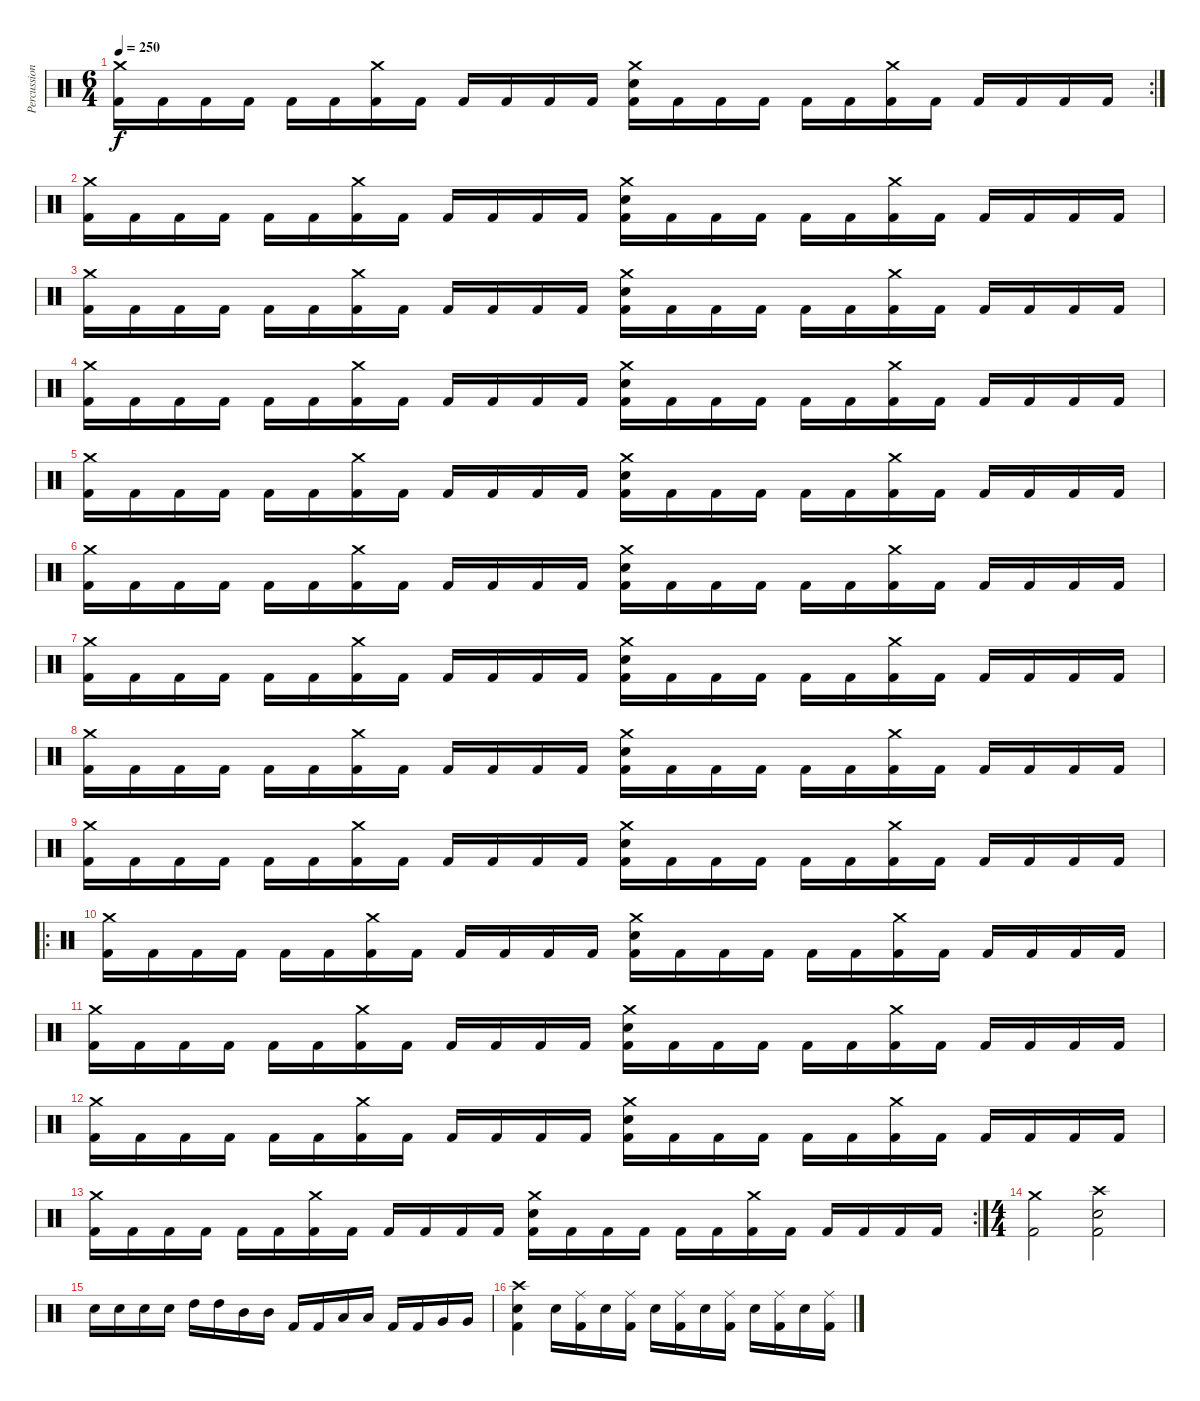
\track ("Percussion" "Percussion") {instrument percussion}
\staff {score}
\articulation defaults
\rc 2
\ts (6 4)
\tempo 250
\clef neutral
\ks c
("Crash medium (hit)" "Kick (hit) 2").16{dy f} "Kick (hit) 2".16 "Kick (hit) 2".16 "Kick (hit) 2".16 "Kick (hit) 2".16 "Kick (hit) 2".16 ("Crash medium (hit)" "Kick (hit) 2").16 "Kick (hit) 2".16 "Kick (hit) 2".16 "Kick (hit) 2".16 "Kick (hit) 2".16 "Kick (hit) 2".16 ("Crash medium (hit)" "Electric Snare (hit)" "Kick (hit) 2").16 "Kick (hit) 2".16 "Kick (hit) 2".16 "Kick (hit) 2".16 "Kick (hit) 2".16 "Kick (hit) 2".16 ("Crash medium (hit)" "Kick (hit) 2").16 "Kick (hit) 2".16 "Kick (hit) 2".16 "Kick (hit) 2".16 "Kick (hit) 2".16 "Kick (hit) 2".16 |
("Crash medium (hit)" "Kick (hit) 2").16 "Kick (hit) 2".16 "Kick (hit) 2".16 "Kick (hit) 2".16 "Kick (hit) 2".16 "Kick (hit) 2".16 ("Crash medium (hit)" "Kick (hit) 2").16 "Kick (hit) 2".16 "Kick (hit) 2".16 "Kick (hit) 2".16 "Kick (hit) 2".16 "Kick (hit) 2".16 ("Crash medium (hit)" "Electric Snare (hit)" "Kick (hit) 2").16 "Kick (hit) 2".16 "Kick (hit) 2".16 "Kick (hit) 2".16 "Kick (hit) 2".16 "Kick (hit) 2".16 ("Crash medium (hit)" "Kick (hit) 2").16 "Kick (hit) 2".16 "Kick (hit) 2".16 "Kick (hit) 2".16 "Kick (hit) 2".16 "Kick (hit) 2".16 |
("Crash medium (hit)" "Kick (hit) 2").16 "Kick (hit) 2".16 "Kick (hit) 2".16 "Kick (hit) 2".16 "Kick (hit) 2".16 "Kick (hit) 2".16 ("Crash medium (hit)" "Kick (hit) 2").16 "Kick (hit) 2".16 "Kick (hit) 2".16 "Kick (hit) 2".16 "Kick (hit) 2".16 "Kick (hit) 2".16 ("Crash medium (hit)" "Electric Snare (hit)" "Kick (hit) 2").16 "Kick (hit) 2".16 "Kick (hit) 2".16 "Kick (hit) 2".16 "Kick (hit) 2".16 "Kick (hit) 2".16 ("Crash medium (hit)" "Kick (hit) 2").16 "Kick (hit) 2".16 "Kick (hit) 2".16 "Kick (hit) 2".16 "Kick (hit) 2".16 "Kick (hit) 2".16 |
("Crash medium (hit)" "Kick (hit) 2").16 "Kick (hit) 2".16 "Kick (hit) 2".16 "Kick (hit) 2".16 "Kick (hit) 2".16 "Kick (hit) 2".16 ("Crash medium (hit)" "Kick (hit) 2").16 "Kick (hit) 2".16 "Kick (hit) 2".16 "Kick (hit) 2".16 "Kick (hit) 2".16 "Kick (hit) 2".16 ("Crash medium (hit)" "Electric Snare (hit)" "Kick (hit) 2").16 "Kick (hit) 2".16 "Kick (hit) 2".16 "Kick (hit) 2".16 "Kick (hit) 2".16 "Kick (hit) 2".16 ("Crash medium (hit)" "Kick (hit) 2").16 "Kick (hit) 2".16 "Kick (hit) 2".16 "Kick (hit) 2".16 "Kick (hit) 2".16 "Kick (hit) 2".16 |
("Crash medium (hit)" "Kick (hit) 2").16 "Kick (hit) 2".16 "Kick (hit) 2".16 "Kick (hit) 2".16 "Kick (hit) 2".16 "Kick (hit) 2".16 ("Crash medium (hit)" "Kick (hit) 2").16 "Kick (hit) 2".16 "Kick (hit) 2".16 "Kick (hit) 2".16 "Kick (hit) 2".16 "Kick (hit) 2".16 ("Crash medium (hit)" "Electric Snare (hit)" "Kick (hit) 2").16 "Kick (hit) 2".16 "Kick (hit) 2".16 "Kick (hit) 2".16 "Kick (hit) 2".16 "Kick (hit) 2".16 ("Crash medium (hit)" "Kick (hit) 2").16 "Kick (hit) 2".16 "Kick (hit) 2".16 "Kick (hit) 2".16 "Kick (hit) 2".16 "Kick (hit) 2".16 |
("Crash medium (hit)" "Kick (hit) 2").16 "Kick (hit) 2".16 "Kick (hit) 2".16 "Kick (hit) 2".16 "Kick (hit) 2".16 "Kick (hit) 2".16 ("Crash medium (hit)" "Kick (hit) 2").16 "Kick (hit) 2".16 "Kick (hit) 2".16 "Kick (hit) 2".16 "Kick (hit) 2".16 "Kick (hit) 2".16 ("Crash medium (hit)" "Electric Snare (hit)" "Kick (hit) 2").16 "Kick (hit) 2".16 "Kick (hit) 2".16 "Kick (hit) 2".16 "Kick (hit) 2".16 "Kick (hit) 2".16 ("Crash medium (hit)" "Kick (hit) 2").16 "Kick (hit) 2".16 "Kick (hit) 2".16 "Kick (hit) 2".16 "Kick (hit) 2".16 "Kick (hit) 2".16 |
("Crash medium (hit)" "Kick (hit) 2").16 "Kick (hit) 2".16 "Kick (hit) 2".16 "Kick (hit) 2".16 "Kick (hit) 2".16 "Kick (hit) 2".16 ("Crash medium (hit)" "Kick (hit) 2").16 "Kick (hit) 2".16 "Kick (hit) 2".16 "Kick (hit) 2".16 "Kick (hit) 2".16 "Kick (hit) 2".16 ("Crash medium (hit)" "Electric Snare (hit)" "Kick (hit) 2").16 "Kick (hit) 2".16 "Kick (hit) 2".16 "Kick (hit) 2".16 "Kick (hit) 2".16 "Kick (hit) 2".16 ("Crash medium (hit)" "Kick (hit) 2").16 "Kick (hit) 2".16 "Kick (hit) 2".16 "Kick (hit) 2".16 "Kick (hit) 2".16 "Kick (hit) 2".16 |
("Crash medium (hit)" "Kick (hit) 2").16 "Kick (hit) 2".16 "Kick (hit) 2".16 "Kick (hit) 2".16 "Kick (hit) 2".16 "Kick (hit) 2".16 ("Crash medium (hit)" "Kick (hit) 2").16 "Kick (hit) 2".16 "Kick (hit) 2".16 "Kick (hit) 2".16 "Kick (hit) 2".16 "Kick (hit) 2".16 ("Crash medium (hit)" "Electric Snare (hit)" "Kick (hit) 2").16 "Kick (hit) 2".16 "Kick (hit) 2".16 "Kick (hit) 2".16 "Kick (hit) 2".16 "Kick (hit) 2".16 ("Crash medium (hit)" "Kick (hit) 2").16 "Kick (hit) 2".16 "Kick (hit) 2".16 "Kick (hit) 2".16 "Kick (hit) 2".16 "Kick (hit) 2".16 |
("Crash medium (hit)" "Kick (hit) 2").16 "Kick (hit) 2".16 "Kick (hit) 2".16 "Kick (hit) 2".16 "Kick (hit) 2".16 "Kick (hit) 2".16 ("Crash medium (hit)" "Kick (hit) 2").16 "Kick (hit) 2".16 "Kick (hit) 2".16 "Kick (hit) 2".16 "Kick (hit) 2".16 "Kick (hit) 2".16 ("Crash medium (hit)" "Electric Snare (hit)" "Kick (hit) 2").16 "Kick (hit) 2".16 "Kick (hit) 2".16 "Kick (hit) 2".16 "Kick (hit) 2".16 "Kick (hit) 2".16 ("Crash medium (hit)" "Kick (hit) 2").16 "Kick (hit) 2".16 "Kick (hit) 2".16 "Kick (hit) 2".16 "Kick (hit) 2".16 "Kick (hit) 2".16 |
\ro
("Crash medium (hit)" "Kick (hit) 2").16 "Kick (hit) 2".16 "Kick (hit) 2".16 "Kick (hit) 2".16 "Kick (hit) 2".16 "Kick (hit) 2".16 ("Crash medium (hit)" "Kick (hit) 2").16 "Kick (hit) 2".16 "Kick (hit) 2".16 "Kick (hit) 2".16 "Kick (hit) 2".16 "Kick (hit) 2".16 ("Crash medium (hit)" "Electric Snare (hit)" "Kick (hit) 2").16 "Kick (hit) 2".16 "Kick (hit) 2".16 "Kick (hit) 2".16 "Kick (hit) 2".16 "Kick (hit) 2".16 ("Crash medium (hit)" "Kick (hit) 2").16 "Kick (hit) 2".16 "Kick (hit) 2".16 "Kick (hit) 2".16 "Kick (hit) 2".16 "Kick (hit) 2".16 |
("Crash medium (hit)" "Kick (hit) 2").16 "Kick (hit) 2".16 "Kick (hit) 2".16 "Kick (hit) 2".16 "Kick (hit) 2".16 "Kick (hit) 2".16 ("Crash medium (hit)" "Kick (hit) 2").16 "Kick (hit) 2".16 "Kick (hit) 2".16 "Kick (hit) 2".16 "Kick (hit) 2".16 "Kick (hit) 2".16 ("Crash medium (hit)" "Electric Snare (hit)" "Kick (hit) 2").16 "Kick (hit) 2".16 "Kick (hit) 2".16 "Kick (hit) 2".16 "Kick (hit) 2".16 "Kick (hit) 2".16 ("Crash medium (hit)" "Kick (hit) 2").16 "Kick (hit) 2".16 "Kick (hit) 2".16 "Kick (hit) 2".16 "Kick (hit) 2".16 "Kick (hit) 2".16 |
("Crash medium (hit)" "Kick (hit) 2").16 "Kick (hit) 2".16 "Kick (hit) 2".16 "Kick (hit) 2".16 "Kick (hit) 2".16 "Kick (hit) 2".16 ("Crash medium (hit)" "Kick (hit) 2").16 "Kick (hit) 2".16 "Kick (hit) 2".16 "Kick (hit) 2".16 "Kick (hit) 2".16 "Kick (hit) 2".16 ("Crash medium (hit)" "Electric Snare (hit)" "Kick (hit) 2").16 "Kick (hit) 2".16 "Kick (hit) 2".16 "Kick (hit) 2".16 "Kick (hit) 2".16 "Kick (hit) 2".16 ("Crash medium (hit)" "Kick (hit) 2").16 "Kick (hit) 2".16 "Kick (hit) 2".16 "Kick (hit) 2".16 "Kick (hit) 2".16 "Kick (hit) 2".16 |
\rc 2
("Crash medium (hit)" "Kick (hit) 2").16 "Kick (hit) 2".16 "Kick (hit) 2".16 "Kick (hit) 2".16 "Kick (hit) 2".16 "Kick (hit) 2".16 ("Crash medium (hit)" "Kick (hit) 2").16 "Kick (hit) 2".16 "Kick (hit) 2".16 "Kick (hit) 2".16 "Kick (hit) 2".16 "Kick (hit) 2".16 ("Crash medium (hit)" "Electric Snare (hit)" "Kick (hit) 2").16 "Kick (hit) 2".16 "Kick (hit) 2".16 "Kick (hit) 2".16 "Kick (hit) 2".16 "Kick (hit) 2".16 ("Crash medium (hit)" "Kick (hit) 2").16 "Kick (hit) 2".16 "Kick (hit) 2".16 "Kick (hit) 2".16 "Kick (hit) 2".16 "Kick (hit) 2".16 |
\ts (4 4)
("Crash medium (hit)" "Kick (hit) 2").2 ("Crash high (hit)" "Electric Snare (hit)" "Kick (hit) 2").2 |
"Electric Snare (hit)".16 "Electric Snare (hit)".16 "Electric Snare (hit)".16 "Electric Snare (hit)".16 "High Tom (hit)".16 "High Tom (hit)".16 "Mid Tom (hit)".16 "Mid Tom (hit)".16 "Kick (hit) 2".16 "Kick (hit) 2".16 "Low Tom (hit)".16 "Low Tom (hit)".16 "Kick (hit) 2".16 "Kick (hit) 2".16 "Very Low Tom (hit)".16 "Very Low Tom (hit)".16 |
("Crash high (hit)" "Electric Snare (hit)" "Kick (hit) 2").4 "Electric Snare (hit)".16 ("Ride (middle)" "Kick (hit) 2").16 "Electric Snare (hit)".16 ("Ride (middle)" "Kick (hit) 2").16 "Electric Snare (hit)".16 ("Ride (middle)" "Kick (hit) 2").16 "Electric Snare (hit)".16 ("Ride (middle)" "Kick (hit) 2").16 "Electric Snare (hit)".16 ("Ride (middle)" "Kick (hit) 2").16 "Electric Snare (hit)".16 ("Ride (middle)" "Kick (hit) 2").16
